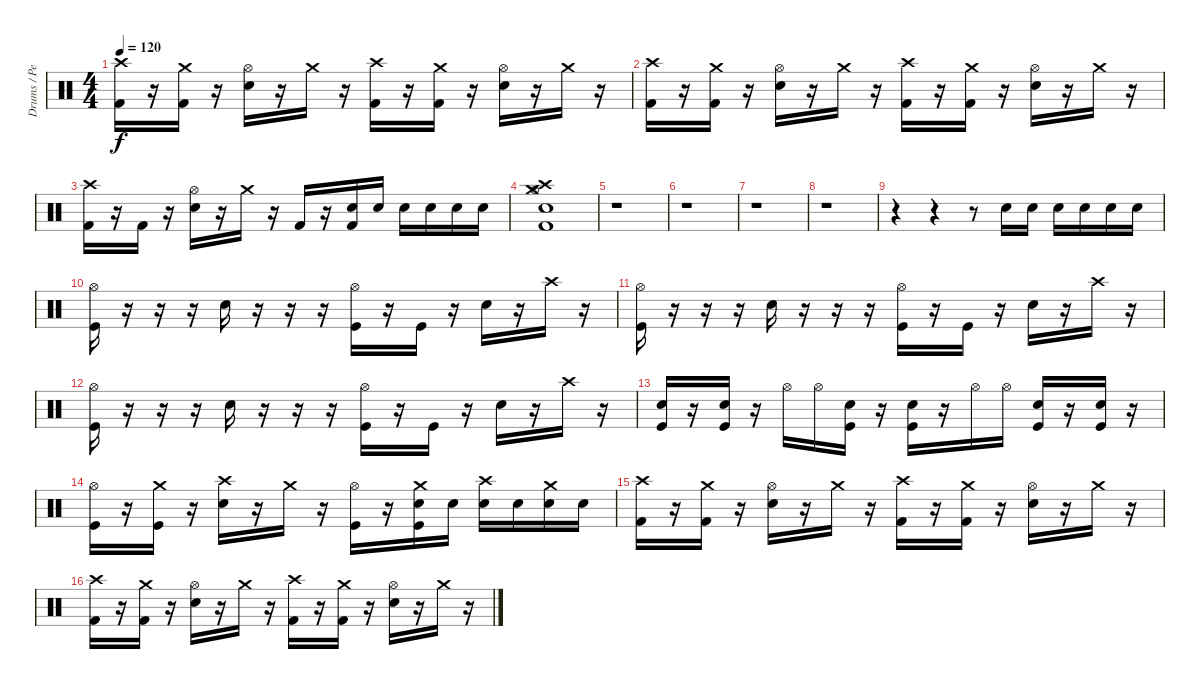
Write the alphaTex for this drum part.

\track ("Drums / Percussion" "Drums / Pe") {instrument percussion}
\staff {score}
\articulation defaults
\ts (4 4)
\tempo 120
\clef neutral
\ks c
("Crash high (hit)" "Kick (hit) 2").16{dy f} r.16 ("Crash medium (hit)" "Kick (hit) 2").16 r.16 ("Hi-Hat (open)" "Snare (hit) 2").16 r.16 "Crash medium (hit)".16 r.16 ("Crash high (hit)" "Kick (hit) 2").16 r.16 ("Crash medium (hit)" "Kick (hit) 2").16 r.16 ("Hi-Hat (open)" "Snare (hit) 2").16 r.16 "Crash medium (hit)".16 r.16 |
("Crash high (hit)" "Kick (hit) 2").16 r.16 ("Crash medium (hit)" "Kick (hit) 2").16 r.16 ("Hi-Hat (open)" "Snare (hit) 2").16 r.16 "Crash medium (hit)".16 r.16 ("Crash high (hit)" "Kick (hit) 2").16 r.16 ("Crash medium (hit)" "Kick (hit) 2").16 r.16 ("Hi-Hat (open)" "Snare (hit) 2").16 r.16 "Crash medium (hit)".16 r.16 |
("Crash high (hit)" "Kick (hit) 2").16 r.16 "Kick (hit) 2".16 r.16 ("Hi-Hat (open)" "Snare (hit) 2").16 r.16 "Crash medium (hit)".16 r.16 "Kick (hit) 2".16 r.16 ("Snare (hit) 2" "Kick (hit) 2").16 "Snare (hit) 2".16 "Snare (hit) 2".16 "Snare (hit) 2".16 "Snare (hit) 2".16 "Snare (hit) 2".16 |
("Crash high (hit)" "Crash medium (hit)" "Hi-Hat (open)" "Snare (hit) 2" "Kick (hit) 2").1 |
r.1 |
r.1 |
r.1 |
r.1 |
r.4 r.4 r.8 "Snare (hit) 2".16 "Snare (hit) 2".16 "Snare (hit) 2".16 "Snare (hit) 2".16 "Snare (hit) 2".16 "Snare (hit) 2".16 |
("Hi-Hat (open)" "Kick (hit)").16 r.16 r.16 r.16 "Snare (hit) 2".16 r.16 r.16 r.16 ("Hi-Hat (open)" "Kick (hit)").16 r.16 "Kick (hit)".16 r.16 "Snare (hit) 2".16 r.16 "Crash high (hit)".16 r.16 |
("Hi-Hat (open)" "Kick (hit)").16 r.16 r.16 r.16 "Snare (hit) 2".16 r.16 r.16 r.16 ("Hi-Hat (open)" "Kick (hit)").16 r.16 "Kick (hit)".16 r.16 "Snare (hit) 2".16 r.16 "Crash high (hit)".16 r.16 |
("Hi-Hat (open)" "Kick (hit)").16 r.16 r.16 r.16 "Snare (hit) 2".16 r.16 r.16 r.16 ("Hi-Hat (open)" "Kick (hit)").16 r.16 "Kick (hit)".16 r.16 "Snare (hit) 2".16 r.16 "Crash high (hit)".16 r.16 |
("Snare (hit) 2" "Kick (hit)").16 r.16 ("Snare (hit) 2" "Kick (hit)").16 r.16 "Hi-Hat (open)".16 "Hi-Hat (open)".16 ("Snare (hit) 2" "Kick (hit)").16 r.16 ("Snare (hit) 2" "Kick (hit)").16 r.16 "Hi-Hat (open)".16 "Hi-Hat (open)".16 ("Snare (hit) 2" "Kick (hit)").16 r.16 ("Snare (hit) 2" "Kick (hit)").16 r.16 |
("Hi-Hat (open)" "Kick (hit)").16 r.16 ("Crash medium (hit)" "Kick (hit)").16 r.16 ("Crash high (hit)" "Snare (hit) 2").16 r.16 "Crash medium (hit)".16 r.16 ("Hi-Hat (open)" "Kick (hit)").16 r.16 ("Crash medium (hit)" "Snare (hit) 2" "Kick (hit)").16 "Snare (hit) 2".16 ("Crash high (hit)" "Snare (hit) 2").16 "Snare (hit) 2".16 ("Crash medium (hit)" "Snare (hit) 2").16 "Snare (hit) 2".16 |
("Crash high (hit)" "Kick (hit) 2").16 r.16 ("Crash medium (hit)" "Kick (hit) 2").16 r.16 ("Hi-Hat (open)" "Snare (hit) 2").16 r.16 "Crash medium (hit)".16 r.16 ("Crash high (hit)" "Kick (hit) 2").16 r.16 ("Crash medium (hit)" "Kick (hit) 2").16 r.16 ("Hi-Hat (open)" "Snare (hit) 2").16 r.16 "Crash medium (hit)".16 r.16 |
("Crash high (hit)" "Kick (hit) 2").16 r.16 ("Crash medium (hit)" "Kick (hit) 2").16 r.16 ("Hi-Hat (open)" "Snare (hit) 2").16 r.16 "Crash medium (hit)".16 r.16 ("Crash high (hit)" "Kick (hit) 2").16 r.16 ("Crash medium (hit)" "Kick (hit) 2").16 r.16 ("Hi-Hat (open)" "Snare (hit) 2").16 r.16 "Crash medium (hit)".16 r.16
